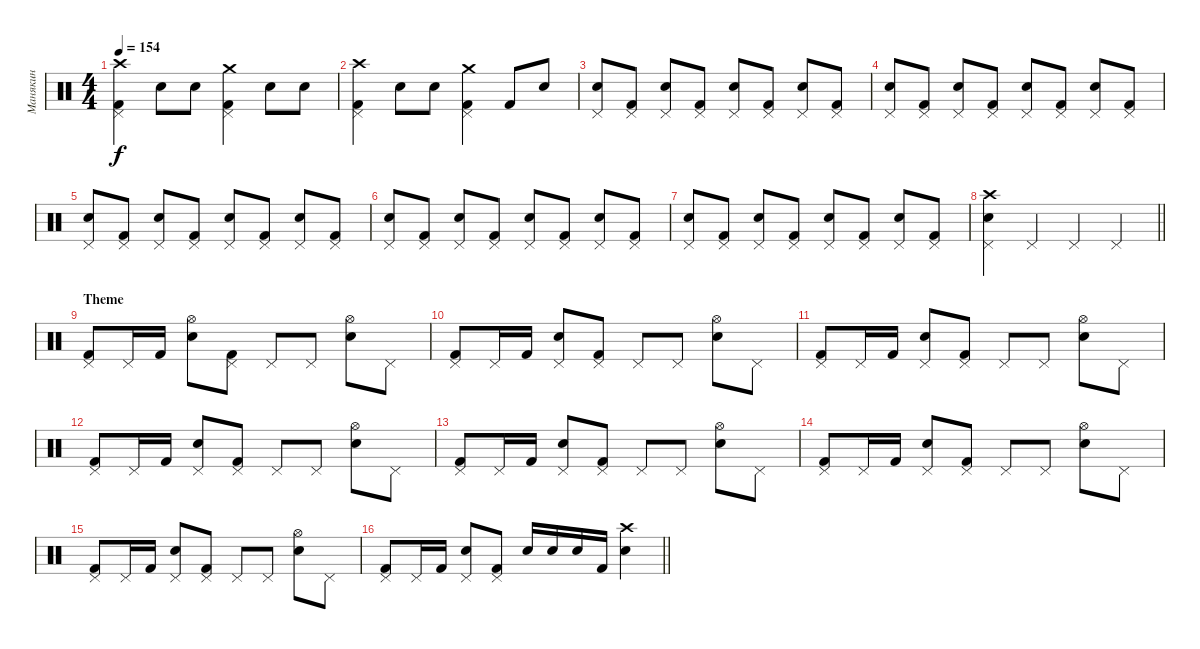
\track ("Манякин" "Манякин") {instrument percussion}
\staff {score}
\articulation defaults
\ts (4 4)
\tempo 154
\clef neutral
\ks c
("Crash high (hit)" "Kick (hit) 2" "Pedal Hi-Hat (hit)").4{dy f} "Electric Snare (hit)".8 "Electric Snare (hit)".8 ("Crash medium (hit)" "Kick (hit) 2" "Pedal Hi-Hat (hit)").4 "Electric Snare (hit)".8 "Electric Snare (hit)".8 |
("Crash high (hit)" "Kick (hit) 2" "Pedal Hi-Hat (hit)").4 "Electric Snare (hit)".8 "Electric Snare (hit)".8 ("Crash medium (hit)" "Kick (hit) 2" "Pedal Hi-Hat (hit)").4 "Kick (hit) 2".8 "Electric Snare (hit)".8 |
("Electric Snare (hit)" "Pedal Hi-Hat (hit)").8 ("Kick (hit) 2" "Pedal Hi-Hat (hit)").8 ("Electric Snare (hit)" "Pedal Hi-Hat (hit)").8 ("Kick (hit) 2" "Pedal Hi-Hat (hit)").8 ("Electric Snare (hit)" "Pedal Hi-Hat (hit)").8 ("Kick (hit) 2" "Pedal Hi-Hat (hit)").8 ("Electric Snare (hit)" "Pedal Hi-Hat (hit)").8 ("Kick (hit) 2" "Pedal Hi-Hat (hit)").8 |
("Electric Snare (hit)" "Pedal Hi-Hat (hit)").8 ("Kick (hit) 2" "Pedal Hi-Hat (hit)").8 ("Electric Snare (hit)" "Pedal Hi-Hat (hit)").8 ("Kick (hit) 2" "Pedal Hi-Hat (hit)").8 ("Electric Snare (hit)" "Pedal Hi-Hat (hit)").8 ("Kick (hit) 2" "Pedal Hi-Hat (hit)").8 ("Electric Snare (hit)" "Pedal Hi-Hat (hit)").8 ("Kick (hit) 2" "Pedal Hi-Hat (hit)").8 |
("Electric Snare (hit)" "Pedal Hi-Hat (hit)").8 ("Kick (hit) 2" "Pedal Hi-Hat (hit)").8 ("Electric Snare (hit)" "Pedal Hi-Hat (hit)").8 ("Kick (hit) 2" "Pedal Hi-Hat (hit)").8 ("Electric Snare (hit)" "Pedal Hi-Hat (hit)").8 ("Kick (hit) 2" "Pedal Hi-Hat (hit)").8 ("Electric Snare (hit)" "Pedal Hi-Hat (hit)").8 ("Kick (hit) 2" "Pedal Hi-Hat (hit)").8 |
("Electric Snare (hit)" "Pedal Hi-Hat (hit)").8 ("Kick (hit) 2" "Pedal Hi-Hat (hit)").8 ("Electric Snare (hit)" "Pedal Hi-Hat (hit)").8 ("Kick (hit) 2" "Pedal Hi-Hat (hit)").8 ("Electric Snare (hit)" "Pedal Hi-Hat (hit)").8 ("Kick (hit) 2" "Pedal Hi-Hat (hit)").8 ("Electric Snare (hit)" "Pedal Hi-Hat (hit)").8 ("Kick (hit) 2" "Pedal Hi-Hat (hit)").8 |
("Electric Snare (hit)" "Pedal Hi-Hat (hit)").8 ("Kick (hit) 2" "Pedal Hi-Hat (hit)").8 ("Electric Snare (hit)" "Pedal Hi-Hat (hit)").8 ("Kick (hit) 2" "Pedal Hi-Hat (hit)").8 ("Electric Snare (hit)" "Pedal Hi-Hat (hit)").8 ("Kick (hit) 2" "Pedal Hi-Hat (hit)").8 ("Electric Snare (hit)" "Pedal Hi-Hat (hit)").8 ("Kick (hit) 2" "Pedal Hi-Hat (hit)").8 |
\barLineRight lightlight
("Crash high (hit)" "Electric Snare (hit)" "Pedal Hi-Hat (hit)").4 "Pedal Hi-Hat (hit)".4 "Pedal Hi-Hat (hit)".4 "Pedal Hi-Hat (hit)".4 |
\section ("" "Theme")
("Pedal Hi-Hat (hit)" "Kick (hit) 2").8 "Pedal Hi-Hat (hit)".16 "Kick (hit) 2".16 ("Hi-Hat (open)" "Electric Snare (hit)").8 ("Pedal Hi-Hat (hit)" "Kick (hit) 2").8 "Pedal Hi-Hat (hit)".8 "Pedal Hi-Hat (hit)".8 ("Hi-Hat (open)" "Electric Snare (hit)").8 "Pedal Hi-Hat (hit)".8 |
("Pedal Hi-Hat (hit)" "Kick (hit) 2").8 "Pedal Hi-Hat (hit)".16 "Kick (hit) 2".16 ("Pedal Hi-Hat (hit)" "Electric Snare (hit)").8 ("Pedal Hi-Hat (hit)" "Kick (hit) 2").8 "Pedal Hi-Hat (hit)".8 "Pedal Hi-Hat (hit)".8 ("Hi-Hat (open)" "Electric Snare (hit)").8 "Pedal Hi-Hat (hit)".8 |
("Pedal Hi-Hat (hit)" "Kick (hit) 2").8 "Pedal Hi-Hat (hit)".16 "Kick (hit) 2".16 ("Pedal Hi-Hat (hit)" "Electric Snare (hit)").8 ("Pedal Hi-Hat (hit)" "Kick (hit) 2").8 "Pedal Hi-Hat (hit)".8 "Pedal Hi-Hat (hit)".8 ("Hi-Hat (open)" "Electric Snare (hit)").8 "Pedal Hi-Hat (hit)".8 |
("Pedal Hi-Hat (hit)" "Kick (hit) 2").8 "Pedal Hi-Hat (hit)".16 "Kick (hit) 2".16 ("Pedal Hi-Hat (hit)" "Electric Snare (hit)").8 ("Pedal Hi-Hat (hit)" "Kick (hit) 2").8 "Pedal Hi-Hat (hit)".8 "Pedal Hi-Hat (hit)".8 ("Hi-Hat (open)" "Electric Snare (hit)").8 "Pedal Hi-Hat (hit)".8 |
("Pedal Hi-Hat (hit)" "Kick (hit) 2").8 "Pedal Hi-Hat (hit)".16 "Kick (hit) 2".16 ("Pedal Hi-Hat (hit)" "Electric Snare (hit)").8 ("Pedal Hi-Hat (hit)" "Kick (hit) 2").8 "Pedal Hi-Hat (hit)".8 "Pedal Hi-Hat (hit)".8 ("Hi-Hat (open)" "Electric Snare (hit)").8 "Pedal Hi-Hat (hit)".8 |
("Pedal Hi-Hat (hit)" "Kick (hit) 2").8 "Pedal Hi-Hat (hit)".16 "Kick (hit) 2".16 ("Pedal Hi-Hat (hit)" "Electric Snare (hit)").8 ("Pedal Hi-Hat (hit)" "Kick (hit) 2").8 "Pedal Hi-Hat (hit)".8 "Pedal Hi-Hat (hit)".8 ("Hi-Hat (open)" "Electric Snare (hit)").8 "Pedal Hi-Hat (hit)".8 |
("Pedal Hi-Hat (hit)" "Kick (hit) 2").8 "Pedal Hi-Hat (hit)".16 "Kick (hit) 2".16 ("Pedal Hi-Hat (hit)" "Electric Snare (hit)").8 ("Pedal Hi-Hat (hit)" "Kick (hit) 2").8 "Pedal Hi-Hat (hit)".8 "Pedal Hi-Hat (hit)".8 ("Hi-Hat (open)" "Electric Snare (hit)").8 "Pedal Hi-Hat (hit)".8 |
\barLineRight lightlight
("Pedal Hi-Hat (hit)" "Kick (hit) 2").8 "Pedal Hi-Hat (hit)".16 "Kick (hit) 2".16 ("Pedal Hi-Hat (hit)" "Electric Snare (hit)").8 ("Pedal Hi-Hat (hit)" "Kick (hit) 2").8 "Electric Snare (hit)".16 "Electric Snare (hit)".16 "Electric Snare (hit)".16 "Kick (hit) 2".16 ("Crash high (hit)" "Electric Snare (hit)").4
